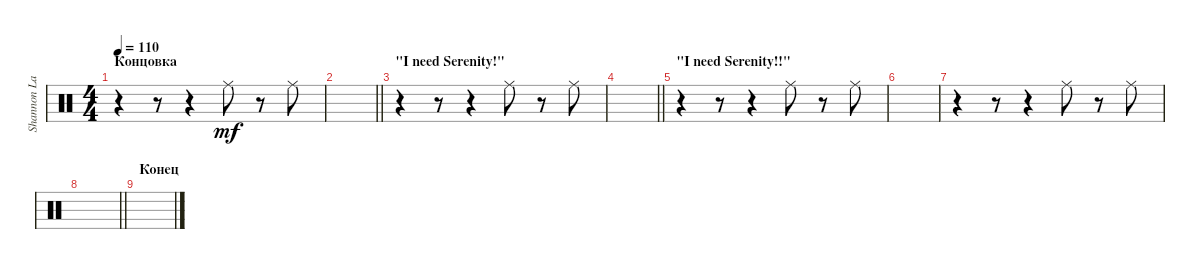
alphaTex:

\track ("Shannon Larkin [Percussion 4]" "Shannon La") {instrument percussion}
\staff {score}
\articulation defaults
\ts (4 4)
\section ("" "Концовка")
\tempo 110
\clef neutral
\ks c
r.4{dy mp} r.8 r.4 "Ride (middle)".8{dy mf} r.8 "Ride (middle)".8 |
\barLineRight lightlight
|
\section ("" "\"I need Serenity!\"")
r.4 r.8 r.4 "Ride (middle)".8 r.8 "Ride (middle)".8 |
\barLineRight lightlight
|
\section ("" "\"I need Serenity!!\"")
r.4 r.8 r.4 "Ride (middle)".8 r.8 "Ride (middle)".8 |
|
r.4 r.8 r.4 "Ride (middle)".8 r.8 "Ride (middle)".8 |
\barLineRight lightlight
|
\section ("" "Конец")
